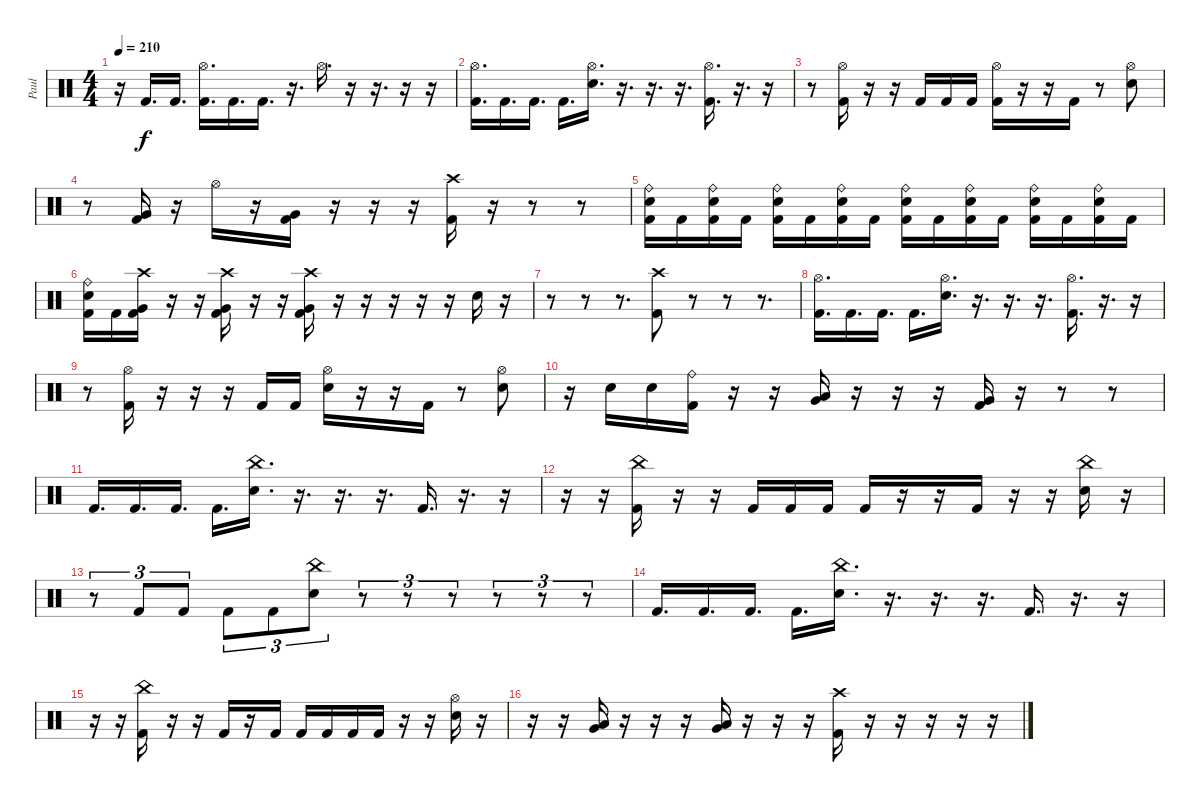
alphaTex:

\track ("Paul " "Paul ") {instrument percussion}
\staff {score}
\articulation defaults
\ts (4 4)
\tempo 210
\clef neutral
\ks c
r.16{dy f} "Kick (hit) 2".16{d} "Kick (hit) 2".16{d} ("Kick (hit) 2" "Hi-Hat (open)").16{d} "Kick (hit) 2".16{d} "Kick (hit) 2".16{d} r.16{d} "Hi-Hat (open)".16{d} r.16 r.16{d} r.16 r.16 |
("Kick (hit) 2" "Hi-Hat (open)").16{d} "Kick (hit) 2".16{d} "Kick (hit) 2".16{d} "Kick (hit) 2".16{d} ("Electric Snare (hit)" "Hi-Hat (open)").16{d} r.16{d} r.16{d} r.16{d} ("Kick (hit) 2" "Hi-Hat (open)").16{d} r.16{d} r.16 |
r.8 ("Kick (hit) 2" "Hi-Hat (open)").16 r.16 r.16 "Kick (hit) 2".16 "Kick (hit) 2".16 "Kick (hit) 2".16 ("Kick (hit) 2" "Hi-Hat (open)").16 r.16 r.16 "Kick (hit) 2".16 r.8 ("Electric Snare (hit)" "Hi-Hat (open)").8 |
r.8 ("Kick (hit) 2" "Very Low Tom (hit)").16 r.16 "Hi-Hat (open)".16 r.16 ("Kick (hit) 2" "Very Low Tom (hit)").16 r.16 r.16 r.16 ("Kick (hit) 2" "Crash high (hit)").16 r.16 r.8 r.8 |
("Kick (hit) 2" "Ride (bell)" "Electric Snare (hit)").16 "Kick (hit) 2".16 ("Kick (hit) 2" "Ride (bell)" "Electric Snare (hit)").16 "Kick (hit) 2".16 ("Kick (hit) 2" "Ride (bell)" "Electric Snare (hit)").16 "Kick (hit) 2".16 ("Kick (hit) 2" "Ride (bell)" "Electric Snare (hit)").16 "Kick (hit) 2".16 ("Kick (hit) 2" "Ride (bell)" "Electric Snare (hit)").16 "Kick (hit) 2".16 ("Kick (hit) 2" "Ride (bell)" "Electric Snare (hit)").16 "Kick (hit) 2".16 ("Kick (hit) 2" "Ride (bell)" "Electric Snare (hit)").16 "Kick (hit) 2".16 ("Kick (hit) 2" "Ride (bell)" "Electric Snare (hit)").16 "Kick (hit) 2".16 |
("Kick (hit) 2" "Ride (bell)" "Electric Snare (hit)").16 "Kick (hit) 2".16 ("Kick (hit) 2" "Very Low Tom (hit)" "Crash high (hit)").16 r.16 r.16 ("Kick (hit) 2" "Very Low Tom (hit)" "Crash high (hit)").16 r.16 r.16 ("Kick (hit) 2" "Very Low Tom (hit)" "Crash high (hit)").16 r.16 r.16 r.16 r.16 r.16 "Electric Snare (hit)".16 r.16 |
r.8 r.8 r.8{d} ("Kick (hit) 2" "Crash high (hit)").8 r.8 r.8 r.8{d} |
("Kick (hit) 2" "Hi-Hat (open)").16{d} "Kick (hit) 2".16{d} "Kick (hit) 2".16{d} "Kick (hit) 2".16{d} ("Electric Snare (hit)" "Hi-Hat (open)").16{d} r.16{d} r.16{d} r.16{d} ("Kick (hit) 2" "Hi-Hat (open)").16{d} r.16{d} r.16 |
r.8 ("Kick (hit) 2" "Hi-Hat (open)").16 r.16 r.16 r.16 "Kick (hit) 2".16 "Kick (hit) 2".16 ("Electric Snare (hit)" "Hi-Hat (open)").16 r.16 r.16 "Kick (hit) 2".16 r.8 ("Electric Snare (hit)" "Hi-Hat (open)").8 |
r.16 "Electric Snare (hit)".16 "Electric Snare (hit)".16 ("Kick (hit) 2" "Ride (bell)").16 r.16 r.16 ("Very Low Tom (hit)" "Low Floor Tom (hit)").16 r.16 r.16 r.16 ("Kick (hit) 2" "Very Low Tom (hit)").16 r.16 r.8 r.8 |
"Kick (hit) 2".16{d} "Kick (hit) 2".16{d} "Kick (hit) 2".16{d} "Kick (hit) 2".16{d} ("Electric Snare (hit)" "China (hit)").16{d} r.16{d} r.16{d} r.16{d} "Kick (hit) 2".16{d} r.16{d} r.16 |
r.16 r.16 ("Kick (hit) 2" "China (hit)").16 r.16 r.16 "Kick (hit) 2".16 "Kick (hit) 2".16 "Kick (hit) 2".16 "Kick (hit) 2".16 r.16 r.16 "Kick (hit) 2".16 r.16 r.16 ("Electric Snare (hit)" "China (hit)").16 r.16 |
r.8{tu (3 2)} "Kick (hit) 2".8{tu (3 2)} "Kick (hit) 2".8{tu (3 2)} "Kick (hit) 2".8{tu (3 2)} "Kick (hit) 2".8{tu (3 2)} ("Electric Snare (hit)" "China (hit)").8{tu (3 2)} r.8{tu (3 2)} r.8{tu (3 2)} r.8{tu (3 2)} r.8{tu (3 2)} r.8{tu (3 2)} r.8{tu (3 2)} |
"Kick (hit) 2".16{d} "Kick (hit) 2".16{d} "Kick (hit) 2".16{d} "Kick (hit) 2".16{d} ("Electric Snare (hit)" "China (hit)").16{d} r.16{d} r.16{d} r.16{d} "Kick (hit) 2".16{d} r.16{d} r.16 |
r.16 r.16 ("Kick (hit) 2" "China (hit)").16 r.16 r.16 "Kick (hit) 2".16 r.16 "Kick (hit) 2".16 "Kick (hit) 2".16 "Kick (hit) 2".16 "Kick (hit) 2".16 "Kick (hit) 2".16 r.16 r.16 ("Electric Snare (hit)" "Hi-Hat (open)").16 r.16 |
r.16 r.16 ("Low Floor Tom (hit)" "Very Low Tom (hit)").16 r.16 r.16 r.16 ("Very Low Tom (hit)" "Low Floor Tom (hit)").16 r.16 r.16 r.16 ("Kick (hit) 2" "Crash high (hit)").16 r.16 r.16 r.16 r.16 r.16
